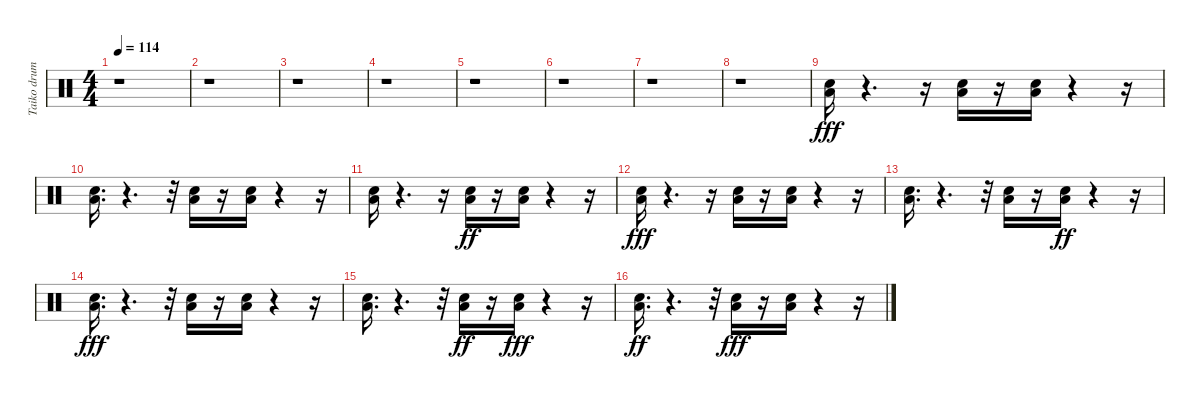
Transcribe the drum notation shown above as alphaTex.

\track ("Taiko drum" "Taiko drum") {instrument percussion}
\staff {score}
\articulation defaults
\ts (4 4)
\tempo 114
\clef neutral
\ks c
r.1{dy fff} |
r.1 |
r.1 |
r.1 |
r.1 |
r.1 |
r.1 |
r.1 |
("Low Floor Tom (hit)" "Electric Snare (hit)").16 r.4{d} r.16 ("Low Floor Tom (hit)" "Electric Snare (hit)").16 r.16 ("Low Floor Tom (hit)" "Electric Snare (hit)").16 r.4 r.16 |
("Low Floor Tom (hit)" "Electric Snare (hit)").16{d} r.4{d} r.32 ("Low Floor Tom (hit)" "Electric Snare (hit)").16 r.16 ("Low Floor Tom (hit)" "Electric Snare (hit)").16 r.4 r.16 |
("Low Floor Tom (hit)" "Electric Snare (hit)").16 r.4{d} r.16 ("Low Floor Tom (hit)" "Electric Snare (hit)").16{dy ff} r.16 ("Low Floor Tom (hit)" "Electric Snare (hit)").16 r.4 r.16 |
("Low Floor Tom (hit)" "Electric Snare (hit)").16{dy fff} r.4{d} r.16 ("Low Floor Tom (hit)" "Electric Snare (hit)").16 r.16 ("Low Floor Tom (hit)" "Electric Snare (hit)").16 r.4 r.16 |
("Low Floor Tom (hit)" "Electric Snare (hit)").16{d} r.4{d} r.32 ("Low Floor Tom (hit)" "Electric Snare (hit)").16 r.16 ("Low Floor Tom (hit)" "Electric Snare (hit)").16{dy ff} r.4 r.16 |
("Low Floor Tom (hit)" "Electric Snare (hit)").16{d dy fff} r.4{d} r.32 ("Low Floor Tom (hit)" "Electric Snare (hit)").16 r.16 ("Low Floor Tom (hit)" "Electric Snare (hit)").16 r.4 r.16 |
("Low Floor Tom (hit)" "Electric Snare (hit)").16{d} r.4{d} r.32 ("Low Floor Tom (hit)" "Electric Snare (hit)").16{dy ff} r.16 ("Low Floor Tom (hit)" "Electric Snare (hit)").16{dy fff} r.4 r.16 |
("Low Floor Tom (hit)" "Electric Snare (hit)").16{d dy ff} r.4{d} r.32 ("Low Floor Tom (hit)" "Electric Snare (hit)").16{dy fff} r.16 ("Low Floor Tom (hit)" "Electric Snare (hit)").16 r.4 r.16
